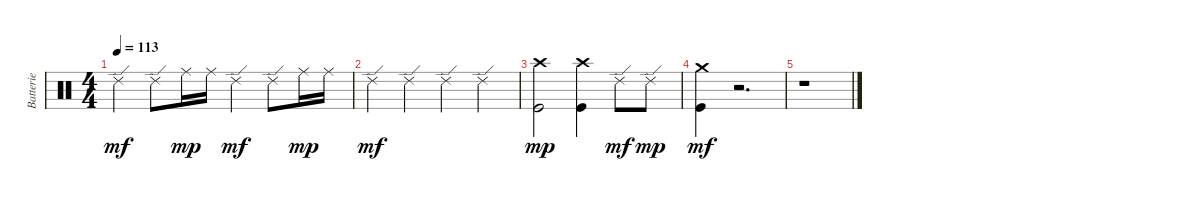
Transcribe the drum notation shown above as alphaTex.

\track ("Batterie" "Batterie") {instrument percussion}
\staff {score}
\articulation defaults
\ts (4 4)
\tempo 113
\clef neutral
\ks c "Ride (edge) 2".4{dy mf} "Ride (edge) 2".8 "Ride (middle)".16{dy mp} "Ride (middle)".16 "Ride (edge) 2".4{dy mf} "Ride (edge) 2".8 "Ride (middle)".16{dy mp} "Ride (middle)".16
|
"Ride (edge) 2".4{dy mf} "Ride (edge) 2".4 "Ride (edge) 2".4 "Ride (edge) 2".4 |
("Kick (hit)" "Crash high (hit)").2{dy mp} ("Kick (hit)" "Crash high (hit)").4 "Ride (edge) 2".8{dy mf} "Ride (edge) 2".8{dy mp} |
("Kick (hit)" "Crash medium (hit)").4{dy mf} r.2{d} |
r.1
